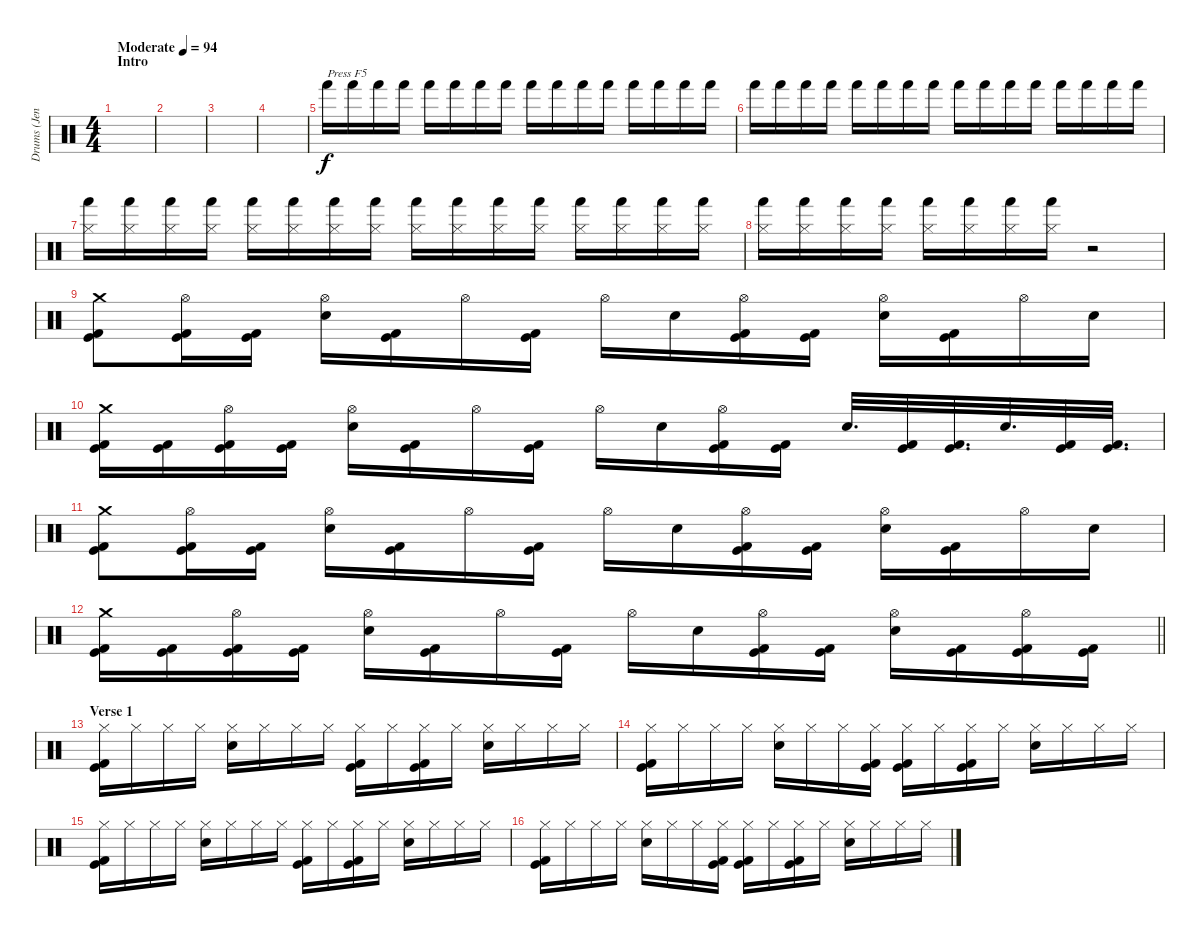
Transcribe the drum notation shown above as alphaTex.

\track ("Drums (Jen Ledger)" "Drums (Jen") {instrument percussion}
\staff {score}
\articulation defaults
\ts (4 4)
\section ("" "Intro")
\tempo (94 "Moderate")
\clef neutral
\ks c
|
|
|
|
"Hand (hit)".16{txt "Press F5"} "Hand (hit)".16 "Hand (hit)".16 "Hand (hit)".16 "Hand (hit)".16 "Hand (hit)".16 "Hand (hit)".16 "Hand (hit)".16 "Hand (hit)".16 "Hand (hit)".16 "Hand (hit)".16 "Hand (hit)".16 "Hand (hit)".16 "Hand (hit)".16 "Hand (hit)".16 "Hand (hit)".16 |
"Hand (hit)".16 "Hand (hit)".16 "Hand (hit)".16 "Hand (hit)".16 "Hand (hit)".16 "Hand (hit)".16 "Hand (hit)".16 "Hand (hit)".16 "Hand (hit)".16 "Hand (hit)".16 "Hand (hit)".16 "Hand (hit)".16 "Hand (hit)".16 "Hand (hit)".16 "Hand (hit)".16 "Hand (hit)".16 |
("Hi-Hat (closed)" "Hand (hit)").16 ("Hi-Hat (closed)" "Hand (hit)").16 ("Hi-Hat (closed)" "Hand (hit)").16 ("Hi-Hat (closed)" "Hand (hit)").16 ("Hi-Hat (closed)" "Hand (hit)").16 ("Hi-Hat (closed)" "Hand (hit)").16 ("Hi-Hat (closed)" "Hand (hit)").16 ("Hi-Hat (closed)" "Hand (hit)").16 ("Hi-Hat (closed)" "Hand (hit)").16 ("Hi-Hat (closed)" "Hand (hit)").16 ("Hi-Hat (closed)" "Hand (hit)").16 ("Hi-Hat (closed)" "Hand (hit)").16 ("Hi-Hat (closed)" "Hand (hit)").16 ("Hi-Hat (closed)" "Hand (hit)").16 ("Hi-Hat (closed)" "Hand (hit)").16 ("Hi-Hat (closed)" "Hand (hit)").16 |
("Hi-Hat (closed)" "Hand (hit)").16 ("Hi-Hat (closed)" "Hand (hit)").16 ("Hi-Hat (closed)" "Hand (hit)").16 ("Hi-Hat (closed)" "Hand (hit)").16 ("Hi-Hat (closed)" "Hand (hit)").16 ("Hi-Hat (closed)" "Hand (hit)").16 ("Hi-Hat (closed)" "Hand (hit)").16 ("Hi-Hat (closed)" "Hand (hit)").16 r.2 |
("Crash medium (hit)" "Kick (hit) 2" "Kick (hit)").8{dy f} ("Hi-Hat (open)" "Kick (hit) 2" "Kick (hit)").16 ("Kick (hit) 2" "Kick (hit)").16 ("Electric Snare (hit)" "Hi-Hat (open)").16 ("Kick (hit) 2" "Kick (hit)").16 "Hi-Hat (open)".16 ("Kick (hit) 2" "Kick (hit)").16 "Hi-Hat (open)".16 "Electric Snare (hit)".16 ("Hi-Hat (open)" "Kick (hit) 2" "Kick (hit)").16 ("Kick (hit) 2" "Kick (hit)").16 ("Electric Snare (hit)" "Hi-Hat (open)").16 ("Kick (hit) 2" "Kick (hit)").16 "Hi-Hat (open)".16 "Electric Snare (hit)".16 |
("Crash medium (hit)" "Kick (hit) 2" "Kick (hit)").16 ("Kick (hit) 2" "Kick (hit)").16 ("Hi-Hat (open)" "Kick (hit) 2" "Kick (hit)").16 ("Kick (hit) 2" "Kick (hit)").16 ("Electric Snare (hit)" "Hi-Hat (open)").16 ("Kick (hit) 2" "Kick (hit)").16 "Hi-Hat (open)".16 ("Kick (hit) 2" "Kick (hit)").16 "Hi-Hat (open)".16 "Electric Snare (hit)".16 ("Hi-Hat (open)" "Kick (hit) 2" "Kick (hit)").16 ("Kick (hit) 2" "Kick (hit)").16 "Electric Snare (hit)".32{d} ("Kick (hit) 2" "Kick (hit)").32 ("Kick (hit) 2" "Kick (hit)").32{d} "Electric Snare (hit)".32{d} ("Kick (hit) 2" "Kick (hit)").32 ("Kick (hit) 2" "Kick (hit)").32{d} |
("Crash medium (hit)" "Kick (hit) 2" "Kick (hit)").8 ("Hi-Hat (open)" "Kick (hit) 2" "Kick (hit)").16 ("Kick (hit) 2" "Kick (hit)").16 ("Electric Snare (hit)" "Hi-Hat (open)").16 ("Kick (hit) 2" "Kick (hit)").16 "Hi-Hat (open)".16 ("Kick (hit) 2" "Kick (hit)").16 "Hi-Hat (open)".16 "Electric Snare (hit)".16 ("Hi-Hat (open)" "Kick (hit) 2" "Kick (hit)").16 ("Kick (hit) 2" "Kick (hit)").16 ("Electric Snare (hit)" "Hi-Hat (open)").16 ("Kick (hit) 2" "Kick (hit)").16 "Hi-Hat (open)".16 "Electric Snare (hit)".16 |
\barLineRight lightlight
("Crash medium (hit)" "Kick (hit) 2" "Kick (hit)").16 ("Kick (hit) 2" "Kick (hit)").16 ("Hi-Hat (open)" "Kick (hit) 2" "Kick (hit)").16 ("Kick (hit) 2" "Kick (hit)").16 ("Electric Snare (hit)" "Hi-Hat (open)").16 ("Kick (hit) 2" "Kick (hit)").16 "Hi-Hat (open)".16 ("Kick (hit) 2" "Kick (hit)").16 "Hi-Hat (open)".16 "Electric Snare (hit)".16 ("Hi-Hat (open)" "Kick (hit) 2" "Kick (hit)").16 ("Kick (hit) 2" "Kick (hit)").16 ("Electric Snare (hit)" "Hi-Hat (open)").16 ("Kick (hit) 2" "Kick (hit)").16 ("Hi-Hat (open)" "Kick (hit) 2" "Kick (hit)").16 ("Kick (hit) 2" "Kick (hit)").16 |
\section ("" "Verse 1")
("Hi-Hat (closed)" "Kick (hit) 2" "Kick (hit)").16 "Hi-Hat (closed)".16 "Hi-Hat (closed)".16 "Hi-Hat (closed)".16 ("Electric Snare (hit)" "Hi-Hat (closed)").16 "Hi-Hat (closed)".16 "Hi-Hat (closed)".16 "Hi-Hat (closed)".16 ("Hi-Hat (closed)" "Kick (hit) 2" "Kick (hit)").16 "Hi-Hat (closed)".16 ("Hi-Hat (closed)" "Kick (hit) 2" "Kick (hit)").16 "Hi-Hat (closed)".16 ("Electric Snare (hit)" "Hi-Hat (closed)").16 "Hi-Hat (closed)".16 "Hi-Hat (closed)".16 "Hi-Hat (closed)".16 |
("Hi-Hat (closed)" "Kick (hit) 2" "Kick (hit)").16 "Hi-Hat (closed)".16 "Hi-Hat (closed)".16 "Hi-Hat (closed)".16 ("Electric Snare (hit)" "Hi-Hat (closed)").16 "Hi-Hat (closed)".16 "Hi-Hat (closed)".16 ("Hi-Hat (closed)" "Kick (hit)" "Kick (hit) 2").16 ("Hi-Hat (closed)" "Kick (hit) 2" "Kick (hit)").16 "Hi-Hat (closed)".16 ("Hi-Hat (closed)" "Kick (hit) 2" "Kick (hit)").16 "Hi-Hat (closed)".16 ("Electric Snare (hit)" "Hi-Hat (closed)").16 "Hi-Hat (closed)".16 "Hi-Hat (closed)".16 "Hi-Hat (closed)".16 |
("Hi-Hat (closed)" "Kick (hit) 2" "Kick (hit)").16 "Hi-Hat (closed)".16 "Hi-Hat (closed)".16 "Hi-Hat (closed)".16 ("Electric Snare (hit)" "Hi-Hat (closed)").16 "Hi-Hat (closed)".16 "Hi-Hat (closed)".16 "Hi-Hat (closed)".16 ("Hi-Hat (closed)" "Kick (hit) 2" "Kick (hit)").16 "Hi-Hat (closed)".16 ("Hi-Hat (closed)" "Kick (hit) 2" "Kick (hit)").16 "Hi-Hat (closed)".16 ("Electric Snare (hit)" "Hi-Hat (closed)").16 "Hi-Hat (closed)".16 "Hi-Hat (closed)".16 "Hi-Hat (closed)".16 |
("Hi-Hat (closed)" "Kick (hit) 2" "Kick (hit)").16 "Hi-Hat (closed)".16 "Hi-Hat (closed)".16 "Hi-Hat (closed)".16 ("Electric Snare (hit)" "Hi-Hat (closed)").16 "Hi-Hat (closed)".16 "Hi-Hat (closed)".16 ("Hi-Hat (closed)" "Kick (hit)" "Kick (hit) 2").16 ("Hi-Hat (closed)" "Kick (hit) 2" "Kick (hit)").16 "Hi-Hat (closed)".16 ("Hi-Hat (closed)" "Kick (hit) 2" "Kick (hit)").16 "Hi-Hat (closed)".16 ("Electric Snare (hit)" "Hi-Hat (closed)").16 "Hi-Hat (closed)".16 "Hi-Hat (closed)".16 "Hi-Hat (closed)".16
